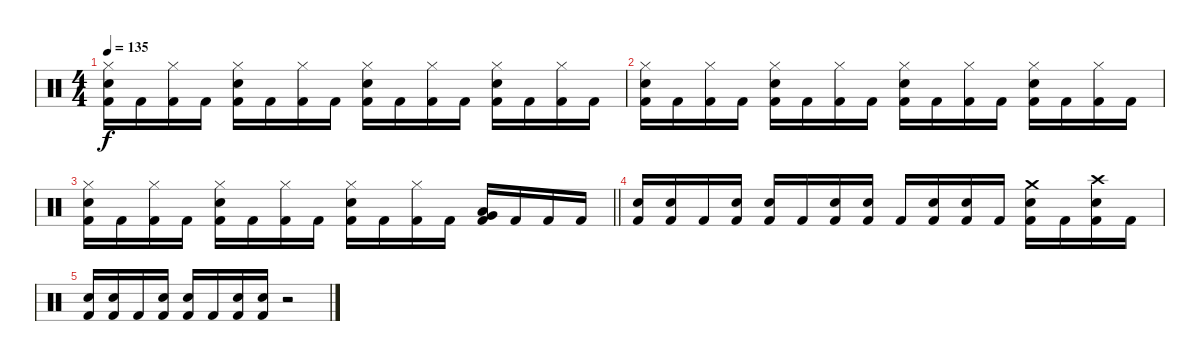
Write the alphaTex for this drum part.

\track "" {instrument percussion}
\staff {score}
\articulation defaults
\ts (4 4)
\tempo 135
\clef neutral
\ks c
("Hi-Hat (closed)" "Electric Snare (hit)" "Kick (hit) 2").16{dy f} "Kick (hit) 2".16 ("Hi-Hat (closed)" "Kick (hit) 2").16 "Kick (hit) 2".16 ("Hi-Hat (closed)" "Electric Snare (hit)" "Kick (hit) 2").16 "Kick (hit) 2".16 ("Hi-Hat (closed)" "Kick (hit) 2").16 "Kick (hit) 2".16 ("Hi-Hat (closed)" "Electric Snare (hit)" "Kick (hit) 2").16 "Kick (hit) 2".16 ("Hi-Hat (closed)" "Kick (hit) 2").16 "Kick (hit) 2".16 ("Hi-Hat (closed)" "Electric Snare (hit)" "Kick (hit) 2").16 "Kick (hit) 2".16 ("Hi-Hat (closed)" "Kick (hit) 2").16 "Kick (hit) 2".16 |
("Hi-Hat (closed)" "Electric Snare (hit)" "Kick (hit) 2").16 "Kick (hit) 2".16 ("Hi-Hat (closed)" "Kick (hit) 2").16 "Kick (hit) 2".16 ("Hi-Hat (closed)" "Electric Snare (hit)" "Kick (hit) 2").16 "Kick (hit) 2".16 ("Hi-Hat (closed)" "Kick (hit) 2").16 "Kick (hit) 2".16 ("Hi-Hat (closed)" "Electric Snare (hit)" "Kick (hit) 2").16 "Kick (hit) 2".16 ("Hi-Hat (closed)" "Kick (hit) 2").16 "Kick (hit) 2".16 ("Hi-Hat (closed)" "Electric Snare (hit)" "Kick (hit) 2").16 "Kick (hit) 2".16 ("Hi-Hat (closed)" "Kick (hit) 2").16 "Kick (hit) 2".16 |
\barLineRight lightlight
("Hi-Hat (closed)" "Electric Snare (hit)" "Kick (hit) 2").16 "Kick (hit) 2".16 ("Hi-Hat (closed)" "Kick (hit) 2").16 "Kick (hit) 2".16 ("Hi-Hat (closed)" "Electric Snare (hit)" "Kick (hit) 2").16 "Kick (hit) 2".16 ("Hi-Hat (closed)" "Kick (hit) 2").16 "Kick (hit) 2".16 ("Hi-Hat (closed)" "Electric Snare (hit)" "Kick (hit) 2").16 "Kick (hit) 2".16 ("Hi-Hat (closed)" "Kick (hit) 2").16 "Kick (hit) 2".16 ("Very Low Tom (hit)" "Low Tom (hit)" "Kick (hit) 2").16 "Kick (hit) 2".16 "Kick (hit) 2".16 "Kick (hit) 2".16 |
("Electric Snare (hit)" "Kick (hit) 2").16 ("Electric Snare (hit)" "Kick (hit) 2").16 "Kick (hit) 2".16 ("Electric Snare (hit)" "Kick (hit) 2").16 ("Electric Snare (hit)" "Kick (hit) 2").16 "Kick (hit) 2".16 ("Electric Snare (hit)" "Kick (hit) 2").16 ("Electric Snare (hit)" "Kick (hit) 2").16 "Kick (hit) 2".16 ("Electric Snare (hit)" "Kick (hit) 2").16 ("Electric Snare (hit)" "Kick (hit) 2").16 "Kick (hit) 2".16 ("Crash medium (hit)" "Electric Snare (hit)" "Kick (hit) 2").16 "Kick (hit) 2".16 ("Crash high (hit)" "Electric Snare (hit)" "Kick (hit) 2").16 "Kick (hit) 2".16 |
("Electric Snare (hit)" "Kick (hit) 2").16 ("Electric Snare (hit)" "Kick (hit) 2").16 "Kick (hit) 2".16 ("Electric Snare (hit)" "Kick (hit) 2").16 ("Electric Snare (hit)" "Kick (hit) 2").16 "Kick (hit) 2".16 ("Electric Snare (hit)" "Kick (hit) 2").16 ("Electric Snare (hit)" "Kick (hit) 2").16 r.2
